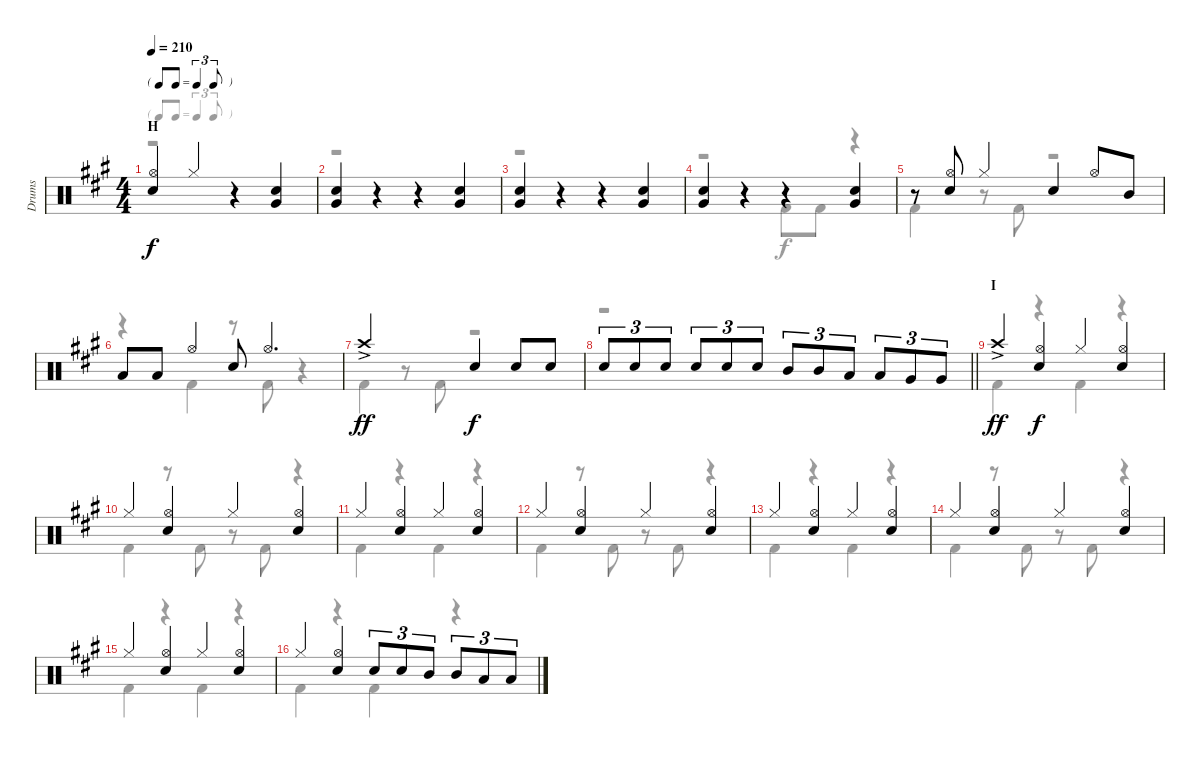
\track ("Drums" "Drums") {instrument percussion}
\staff {score}
\articulation defaults
\voice
\ts (4 4)
\tf triplet8th
\section ("" "H")
\tempo 210
\clef neutral
\ks a
("Hi-Hat (open)" "Snare (hit) 2").4{dy f} "Hi-Hat (closed)".4 r.4 ("Snare (hit) 2" "Very Low Tom (hit)").4 |
("Snare (hit) 2" "Very Low Tom (hit)").4 r.4 r.4 ("Snare (hit) 2" "Very Low Tom (hit)").4 |
("Snare (hit) 2" "Very Low Tom (hit)").4 r.4 r.4 ("Snare (hit) 2" "Very Low Tom (hit)").4 |
("Snare (hit) 2" "Very Low Tom (hit)").4 r.4 r.4 ("Snare (hit) 2" "Very Low Tom (hit)").4 |
r.8 ("Hi-Hat (open)" "Snare (hit) 2").8 "Hi-Hat (closed)".4 "Snare (hit) 2".4 "Hi-Hat (open)".8 "Mid Tom (hit)".8 |
"Low Tom (hit)".8 "Low Tom (hit)".8 "Hi-Hat (open)".4 "Snare (hit) 2".8 "Hi-Hat (open)".4{d} |
"Crash high (hit)"{ac}.2{dy ff} "Snare (hit) 2".4{dy f} "Snare (hit) 2".8 "Snare (hit) 2".8 |
\barLineRight lightlight "Snare (hit) 2".8{tu (3 2)} "Snare (hit) 2".8{tu (3 2)} "Snare (hit) 2".8{tu (3 2)} "Snare (hit) 2".8{tu (3 2)} "Snare (hit) 2".8{tu (3 2)} "Snare (hit) 2".8{tu (3 2)} "Mid Tom (hit)".8{tu (3 2)} "Mid Tom (hit)".8{tu (3 2)} "Low Tom (hit)".8{tu (3 2)} "Low Tom (hit)".8{tu (3 2)} "Very Low Tom (hit)".8{tu (3 2)} "Very Low Tom (hit)".8{tu (3 2)}
|
\section ("" "I")
"Crash high (hit)"{ac}.4{dy ff} ("Hi-Hat (open)" "Snare (hit) 2").4{dy f} "Hi-Hat (closed)".4 ("Hi-Hat (open)" "Snare (hit) 2").4 |
"Hi-Hat (closed)".4 ("Hi-Hat (open)" "Snare (hit) 2").4 "Hi-Hat (closed)".4 ("Hi-Hat (open)" "Snare (hit) 2").4 |
"Hi-Hat (closed)".4 ("Hi-Hat (open)" "Snare (hit) 2").4 "Hi-Hat (closed)".4 ("Hi-Hat (open)" "Snare (hit) 2").4 |
"Hi-Hat (closed)".4 ("Hi-Hat (open)" "Snare (hit) 2").4 "Hi-Hat (closed)".4 ("Hi-Hat (open)" "Snare (hit) 2").4 |
"Hi-Hat (closed)".4 ("Hi-Hat (open)" "Snare (hit) 2").4 "Hi-Hat (closed)".4 ("Hi-Hat (open)" "Snare (hit) 2").4 |
"Hi-Hat (closed)".4 ("Hi-Hat (open)" "Snare (hit) 2").4 "Hi-Hat (closed)".4 ("Hi-Hat (open)" "Snare (hit) 2").4 |
"Hi-Hat (closed)".4 ("Hi-Hat (open)" "Snare (hit) 2").4 "Hi-Hat (closed)".4 ("Hi-Hat (open)" "Snare (hit) 2").4 |
"Hi-Hat (closed)".4 ("Hi-Hat (open)" "Snare (hit) 2").4 "Snare (hit) 2".8{tu (3 2)} "Snare (hit) 2".8{tu (3 2)} "Mid Tom (hit)".8{tu (3 2)} "Mid Tom (hit)".8{tu (3 2)} "Low Tom (hit)".8{tu (3 2)} "Low Tom (hit)".8{tu (3 2)}
\voice
\clef neutral
\ottava regular
\simile none
\ks a
r.1{dy f} |
r.1 |
r.1 |
r.2 "Kick (hit) 2".8 "Kick (hit) 2".8 r.4 |
"Kick (hit) 2".4 r.8 "Kick (hit) 2".8 r.2 |
r.4 "Kick (hit) 2".4 r.8 "Kick (hit) 2".8 r.4 |
"Kick (hit) 2".4 r.8 "Kick (hit) 2".8 r.2 |
\barLineRight lightlight
r.1 |
"Kick (hit) 2".4 r.4 "Kick (hit) 2".4 r.4 |
"Kick (hit) 2".4 r.8 "Kick (hit) 2".8 r.8 "Kick (hit) 2".8 r.4 |
"Kick (hit) 2".4 r.4 "Kick (hit) 2".4 r.4 |
"Kick (hit) 2".4 r.8 "Kick (hit) 2".8 r.8 "Kick (hit) 2".8 r.4 |
"Kick (hit) 2".4 r.4 "Kick (hit) 2".4 r.4 |
"Kick (hit) 2".4 r.8 "Kick (hit) 2".8 r.8 "Kick (hit) 2".8 r.4 |
"Kick (hit) 2".4 r.4 "Kick (hit) 2".4 r.4 |
"Kick (hit) 2".4 r.4 "Kick (hit) 2".4 r.4
